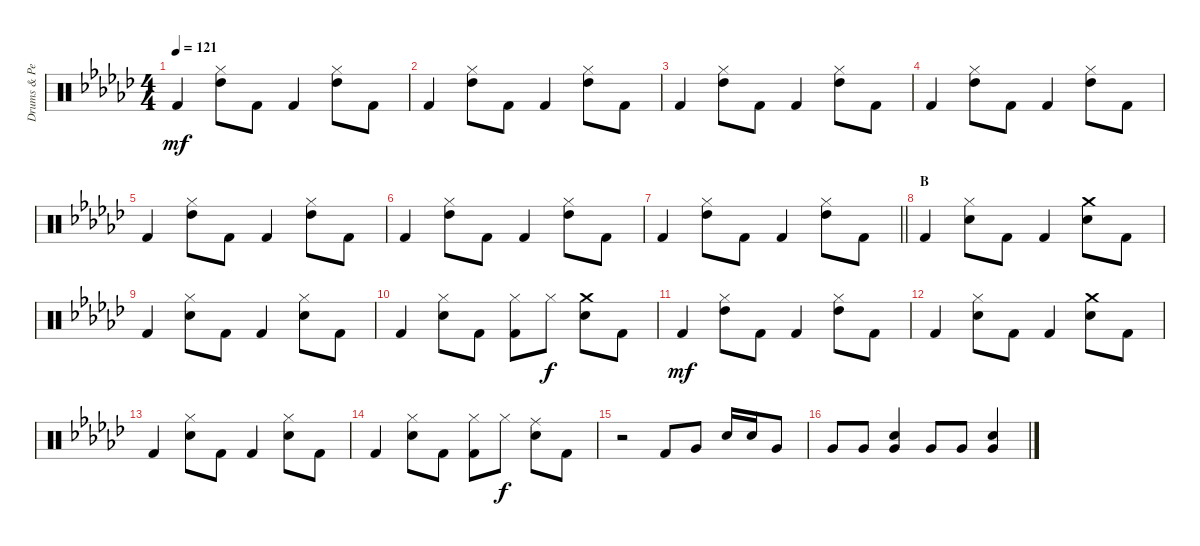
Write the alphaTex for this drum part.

\track ("Drums & Percussion" "Drums & Pe") {instrument percussion bank 98}
\staff {score}
\articulation defaults
\ts (4 4)
\tempo 121
\clef neutral
\ks ebminor "Kick (hit) 2".4{dy mf}
("Hi-Hat (closed)" "High Tom (hit)").8 "Kick (hit) 2".8 "Kick (hit) 2".4 ("Hi-Hat (closed)" "High Tom (hit)").8 "Kick (hit) 2".8 |
"Kick (hit) 2".4 ("Hi-Hat (closed)" "High Tom (hit)").8 "Kick (hit) 2".8 "Kick (hit) 2".4 ("Hi-Hat (closed)" "High Tom (hit)").8 "Kick (hit) 2".8 |
"Kick (hit) 2".4 ("Hi-Hat (closed)" "High Tom (hit)").8 "Kick (hit) 2".8 "Kick (hit) 2".4 ("Hi-Hat (closed)" "High Tom (hit)").8 "Kick (hit) 2".8 |
"Kick (hit) 2".4 ("Hi-Hat (closed)" "High Tom (hit)").8 "Kick (hit) 2".8 "Kick (hit) 2".4 ("Hi-Hat (closed)" "High Tom (hit)").8 "Kick (hit) 2".8 |
"Kick (hit) 2".4 ("Hi-Hat (closed)" "High Tom (hit)").8 "Kick (hit) 2".8 "Kick (hit) 2".4 ("Hi-Hat (closed)" "High Tom (hit)").8 "Kick (hit) 2".8 |
"Kick (hit) 2".4 ("Hi-Hat (closed)" "High Tom (hit)").8 "Kick (hit) 2".8 "Kick (hit) 2".4 ("Hi-Hat (closed)" "High Tom (hit)").8 "Kick (hit) 2".8 |
\barLineRight lightlight "Kick (hit) 2".4
("Hi-Hat (closed)" "High Tom (hit)").8 "Kick (hit) 2".8 "Kick (hit) 2".4 ("Hi-Hat (closed)" "High Tom (hit)").8 "Kick (hit) 2".8 |
\section ("" "B")
"Kick (hit) 2".4 ("Hi-Hat (closed)" "Snare (hit) 2").8 "Kick (hit) 2".8 "Kick (hit) 2".4 ("Crash medium (hit)" "Snare (hit) 2").8 "Kick (hit) 2".8 |
"Kick (hit) 2".4 ("Hi-Hat (closed)" "Snare (hit) 2").8 "Kick (hit) 2".8 "Kick (hit) 2".4 ("Hi-Hat (closed)" "Snare (hit) 2").8 "Kick (hit) 2".8 |
"Kick (hit) 2".4 ("Hi-Hat (closed)" "Snare (hit) 2").8 "Kick (hit) 2".8 ("Hi-Hat (closed)" "Kick (hit) 2").8 "Hi-Hat (closed)".8{dy f} ("Crash medium (hit)" "Snare (hit) 2").8 "Kick (hit) 2".8 |
"Kick (hit) 2".4{dy mf} ("Hi-Hat (closed)" "High Tom (hit)").8 "Kick (hit) 2".8 "Kick (hit) 2".4 ("Hi-Hat (closed)" "High Tom (hit)").8 "Kick (hit) 2".8 |
"Kick (hit) 2".4 ("Hi-Hat (closed)" "Snare (hit) 2").8 "Kick (hit) 2".8 "Kick (hit) 2".4 ("Crash medium (hit)" "Snare (hit) 2").8 "Kick (hit) 2".8 |
"Kick (hit) 2".4 ("Hi-Hat (closed)" "Snare (hit) 2").8 "Kick (hit) 2".8 "Kick (hit) 2".4 ("Hi-Hat (closed)" "Snare (hit) 2").8 "Kick (hit) 2".8 |
"Kick (hit) 2".4 ("Hi-Hat (closed)" "Snare (hit) 2").8 "Kick (hit) 2".8 ("Hi-Hat (closed)" "Kick (hit) 2").8 "Hi-Hat (closed)".8{dy f} ("Ride (middle)" "Snare (hit) 2").8 "Kick (hit) 2".8 |
r.2 "Kick (hit) 2".8 "Very Low Tom (hit)".8 "Snare (hit) 2".16 "Snare (hit) 2".16 "Very Low Tom (hit)".8 |
"Very Low Tom (hit)".8 "Very Low Tom (hit)".8 ("Snare (hit) 2" "Very Low Tom (hit)").4 "Very Low Tom (hit)".8 "Very Low Tom (hit)".8 ("Snare (hit) 2" "Very Low Tom (hit)").4
